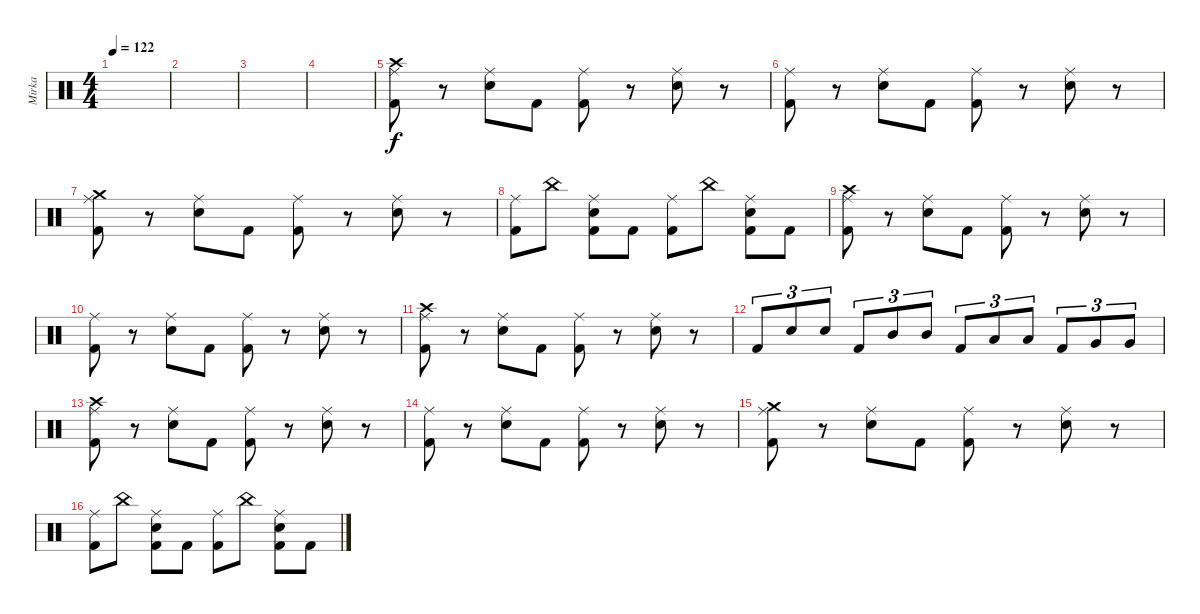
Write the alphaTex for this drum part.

\track ("Mirka" "Mirka") {instrument percussion}
\staff {score}
\articulation defaults
\ts (4 4)
\tempo 122
\clef neutral
\ks c
|
|
|
|
("Crash high (hit)" "Ride (middle)" "Kick (hit) 2").8 r.8 ("Ride (middle)" "Electric Snare (hit)").8 "Kick (hit) 2".8 ("Ride (middle)" "Kick (hit) 2").8 r.8 ("Ride (middle)" "Electric Snare (hit)").8 r.8 |
("Ride (middle)" "Kick (hit) 2").8 r.8 ("Ride (middle)" "Electric Snare (hit)").8 "Kick (hit) 2".8 ("Ride (middle)" "Kick (hit) 2").8 r.8 ("Ride (middle)" "Electric Snare (hit)").8 r.8 |
("Crash medium (hit)" "Ride (middle)" "Kick (hit) 2").8 r.8 ("Ride (middle)" "Electric Snare (hit)").8 "Kick (hit) 2".8 ("Ride (middle)" "Kick (hit) 2").8 r.8 ("Ride (middle)" "Electric Snare (hit)").8 r.8 |
("Ride (middle)" "Kick (hit) 2").8 "China (hit)".8 ("Ride (middle)" "Electric Snare (hit)" "Kick (hit) 2").8 "Kick (hit) 2".8 ("Ride (middle)" "Kick (hit) 2").8 "China (hit)".8 ("Ride (middle)" "Electric Snare (hit)" "Kick (hit) 2").8 "Kick (hit) 2".8 |
("Crash high (hit)" "Ride (middle)" "Kick (hit) 2").8 r.8 ("Ride (middle)" "Electric Snare (hit)").8 "Kick (hit) 2".8 ("Ride (middle)" "Kick (hit) 2").8 r.8 ("Ride (middle)" "Electric Snare (hit)").8 r.8 |
("Ride (middle)" "Kick (hit) 2").8 r.8 ("Ride (middle)" "Electric Snare (hit)").8 "Kick (hit) 2".8 ("Ride (middle)" "Kick (hit) 2").8 r.8 ("Ride (middle)" "Electric Snare (hit)").8 r.8 |
("Crash high (hit)" "Ride (middle)" "Kick (hit) 2").8 r.8 ("Ride (middle)" "Electric Snare (hit)").8 "Kick (hit) 2".8 ("Ride (middle)" "Kick (hit) 2").8 r.8 ("Ride (middle)" "Electric Snare (hit)").8 r.8 |
"Kick (hit) 2".8{tu (3 2)} "Electric Snare (hit)".8{tu (3 2)} "Electric Snare (hit)".8{tu (3 2)} "Kick (hit) 2".8{tu (3 2)} "Mid Tom (hit)".8{tu (3 2)} "Mid Tom (hit)".8{tu (3 2)} "Kick (hit) 2".8{tu (3 2)} "Low Tom (hit)".8{tu (3 2)} "Low Tom (hit)".8{tu (3 2)} "Kick (hit) 2".8{tu (3 2)} "Very Low Tom (hit)".8{tu (3 2)} "Very Low Tom (hit)".8{tu (3 2)} |
("Crash high (hit)" "Ride (middle)" "Kick (hit) 2").8 r.8 ("Ride (middle)" "Electric Snare (hit)").8 "Kick (hit) 2".8 ("Ride (middle)" "Kick (hit) 2").8 r.8 ("Ride (middle)" "Electric Snare (hit)").8 r.8 |
("Ride (middle)" "Kick (hit) 2").8 r.8 ("Ride (middle)" "Electric Snare (hit)").8 "Kick (hit) 2".8 ("Ride (middle)" "Kick (hit) 2").8 r.8 ("Ride (middle)" "Electric Snare (hit)").8 r.8 |
("Crash medium (hit)" "Ride (middle)" "Kick (hit) 2").8 r.8 ("Ride (middle)" "Electric Snare (hit)").8 "Kick (hit) 2".8 ("Ride (middle)" "Kick (hit) 2").8 r.8 ("Ride (middle)" "Electric Snare (hit)").8 r.8 |
("Ride (middle)" "Kick (hit) 2").8 "China (hit)".8 ("Ride (middle)" "Electric Snare (hit)" "Kick (hit) 2").8 "Kick (hit) 2".8 ("Ride (middle)" "Kick (hit) 2").8 "China (hit)".8 ("Ride (middle)" "Electric Snare (hit)" "Kick (hit) 2").8 "Kick (hit) 2".8
